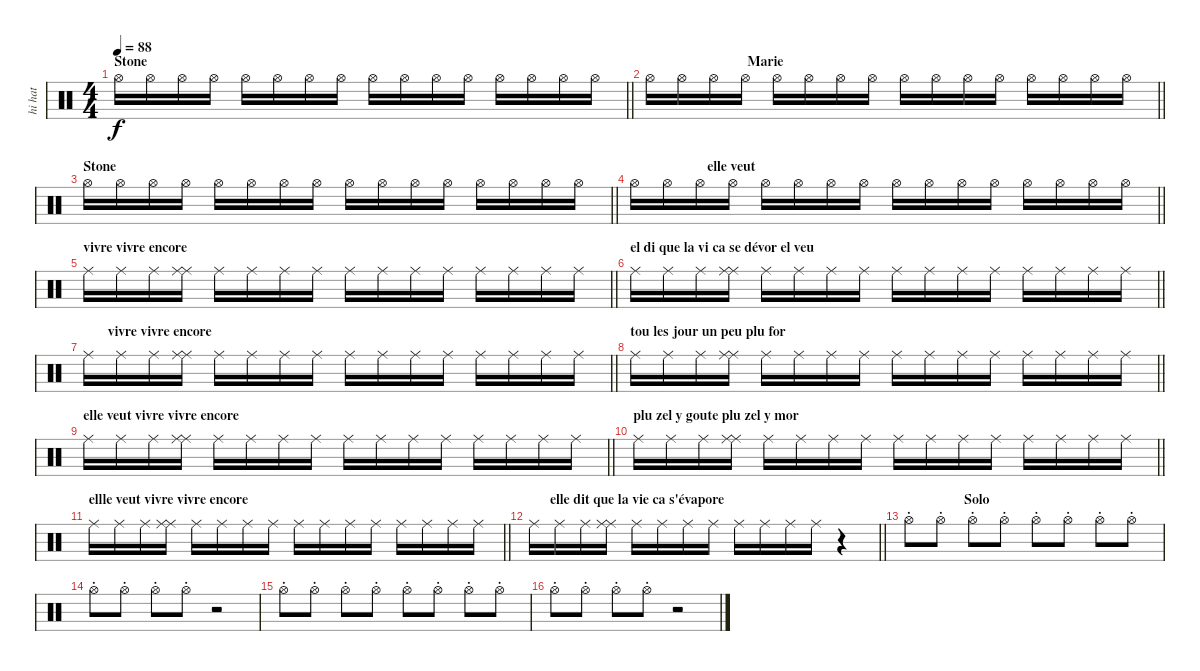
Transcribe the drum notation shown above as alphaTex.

\track ("hi hat" "hi hat") {instrument percussion}
\staff {score}
\articulation defaults
\ts (4 4)
\section ("" "Stone")
\tempo 88
\clef neutral
\barLineRight lightlight
\ks c "Hi-Hat (open)".16{dy f} "Hi-Hat (open)".16 "Hi-Hat (open)".16 "Hi-Hat (open)".16 "Hi-Hat (open)".16 "Hi-Hat (open)".16 "Hi-Hat (open)".16 "Hi-Hat (open)".16 "Hi-Hat (open)".16 "Hi-Hat (open)".16 "Hi-Hat (open)".16 "Hi-Hat (open)".16 "Hi-Hat (open)".16 "Hi-Hat (open)".16 "Hi-Hat (open)".16 "Hi-Hat (open)".16
|
\section ("" "                             Marie")
\barLineRight lightlight "Hi-Hat (open)".16 "Hi-Hat (open)".16 "Hi-Hat (open)".16 "Hi-Hat (open)".16 "Hi-Hat (open)".16 "Hi-Hat (open)".16 "Hi-Hat (open)".16 "Hi-Hat (open)".16 "Hi-Hat (open)".16 "Hi-Hat (open)".16 "Hi-Hat (open)".16 "Hi-Hat (open)".16 "Hi-Hat (open)".16 "Hi-Hat (open)".16 "Hi-Hat (open)".16 "Hi-Hat (open)".16
|
\section ("" "Stone")
\barLineRight lightlight "Hi-Hat (open)".16 "Hi-Hat (open)".16 "Hi-Hat (open)".16 "Hi-Hat (open)".16 "Hi-Hat (open)".16 "Hi-Hat (open)".16 "Hi-Hat (open)".16 "Hi-Hat (open)".16 "Hi-Hat (open)".16 "Hi-Hat (open)".16 "Hi-Hat (open)".16 "Hi-Hat (open)".16 "Hi-Hat (open)".16 "Hi-Hat (open)".16 "Hi-Hat (open)".16 "Hi-Hat (open)".16
|
\section ("" "                      elle veut ")
\barLineRight lightlight "Hi-Hat (open)".16 "Hi-Hat (open)".16 "Hi-Hat (open)".16 "Hi-Hat (open)".16 "Hi-Hat (open)".16 "Hi-Hat (open)".16 "Hi-Hat (open)".16 "Hi-Hat (open)".16 "Hi-Hat (open)".16 "Hi-Hat (open)".16 "Hi-Hat (open)".16 "Hi-Hat (open)".16 "Hi-Hat (open)".16 "Hi-Hat (open)".16 "Hi-Hat (open)".16 "Hi-Hat (open)".16
|
\section ("" "vivre vivre encore")
\barLineRight lightlight "Ride (middle)".16 "Ride (middle)".16 "Ride (middle)".16
("Ride (middle)" "Ride (middle)").16 "Ride (middle)".16 "Ride (middle)".16 "Ride (middle)".16 "Ride (middle)".16 "Ride (middle)".16 "Ride (middle)".16 "Ride (middle)".16 "Ride (middle)".16 "Ride (middle)".16 "Ride (middle)".16 "Ride (middle)".16 "Ride (middle)".16 |
\section ("" "el di que la vi ca se dévor el veu")
\barLineRight lightlight "Ride (middle)".16 "Ride (middle)".16 "Ride (middle)".16
("Ride (middle)" "Ride (middle)").16 "Ride (middle)".16 "Ride (middle)".16 "Ride (middle)".16 "Ride (middle)".16 "Ride (middle)".16 "Ride (middle)".16 "Ride (middle)".16 "Ride (middle)".16 "Ride (middle)".16 "Ride (middle)".16 "Ride (middle)".16 "Ride (middle)".16 |
\section ("" "       vivre vivre encore")
\barLineRight lightlight "Ride (middle)".16 "Ride (middle)".16 "Ride (middle)".16
("Ride (middle)" "Ride (middle)").16 "Ride (middle)".16 "Ride (middle)".16 "Ride (middle)".16 "Ride (middle)".16 "Ride (middle)".16 "Ride (middle)".16 "Ride (middle)".16 "Ride (middle)".16 "Ride (middle)".16 "Ride (middle)".16 "Ride (middle)".16 "Ride (middle)".16 |
\section ("" "tou les jour un peu plu for")
\barLineRight lightlight "Ride (middle)".16 "Ride (middle)".16 "Ride (middle)".16
("Ride (middle)" "Ride (middle)").16 "Ride (middle)".16 "Ride (middle)".16 "Ride (middle)".16 "Ride (middle)".16 "Ride (middle)".16 "Ride (middle)".16 "Ride (middle)".16 "Ride (middle)".16 "Ride (middle)".16 "Ride (middle)".16 "Ride (middle)".16 "Ride (middle)".16 |
\section ("" "elle veut vivre vivre encore")
\barLineRight lightlight "Ride (middle)".16 "Ride (middle)".16 "Ride (middle)".16
("Ride (middle)" "Ride (middle)").16 "Ride (middle)".16 "Ride (middle)".16 "Ride (middle)".16 "Ride (middle)".16 "Ride (middle)".16 "Ride (middle)".16 "Ride (middle)".16 "Ride (middle)".16 "Ride (middle)".16 "Ride (middle)".16 "Ride (middle)".16 "Ride (middle)".16 |
\section ("" "plu zel y goute plu zel y mor")
\barLineRight lightlight "Ride (middle)".16 "Ride (middle)".16 "Ride (middle)".16
("Ride (middle)" "Ride (middle)").16 "Ride (middle)".16 "Ride (middle)".16 "Ride (middle)".16 "Ride (middle)".16 "Ride (middle)".16 "Ride (middle)".16 "Ride (middle)".16 "Ride (middle)".16 "Ride (middle)".16 "Ride (middle)".16 "Ride (middle)".16 "Ride (middle)".16 |
\section ("" "ellle veut vivre vivre encore")
\barLineRight lightlight "Ride (middle)".16 "Ride (middle)".16 "Ride (middle)".16
("Ride (middle)" "Ride (middle)").16 "Ride (middle)".16 "Ride (middle)".16 "Ride (middle)".16 "Ride (middle)".16 "Ride (middle)".16 "Ride (middle)".16 "Ride (middle)".16 "Ride (middle)".16 "Ride (middle)".16 "Ride (middle)".16 "Ride (middle)".16 "Ride (middle)".16 |
\section ("" "      elle dit que la vie ca s'évapore")
\barLineRight lightlight "Ride (middle)".16 "Ride (middle)".16 "Ride (middle)".16
("Ride (middle)" "Ride (middle)").16 "Ride (middle)".16 "Ride (middle)".16 "Ride (middle)".16 "Ride (middle)".16 "Ride (middle)".16 "Ride (middle)".16 "Ride (middle)".16 "Ride (middle)".16 r.4 |
\section ("" "                 Solo")
"Hi-Hat (open)"{st}.8 "Hi-Hat (open)"{st}.8 "Hi-Hat (open)"{st}.8 "Hi-Hat (open)"{st}.8 "Hi-Hat (open)"{st}.8 "Hi-Hat (open)"{st}.8 "Hi-Hat (open)"{st}.8 "Hi-Hat (open)"{st}.8 |
"Hi-Hat (open)"{st}.8 "Hi-Hat (open)"{st}.8 "Hi-Hat (open)"{st}.8 "Hi-Hat (open)"{st}.8 r.2 |
"Hi-Hat (open)"{st}.8 "Hi-Hat (open)"{st}.8 "Hi-Hat (open)"{st}.8 "Hi-Hat (open)"{st}.8 "Hi-Hat (open)"{st}.8 "Hi-Hat (open)"{st}.8 "Hi-Hat (open)"{st}.8 "Hi-Hat (open)"{st}.8 |
"Hi-Hat (open)"{st}.8 "Hi-Hat (open)"{st}.8 "Hi-Hat (open)"{st}.8 "Hi-Hat (open)"{st}.8 r.2
